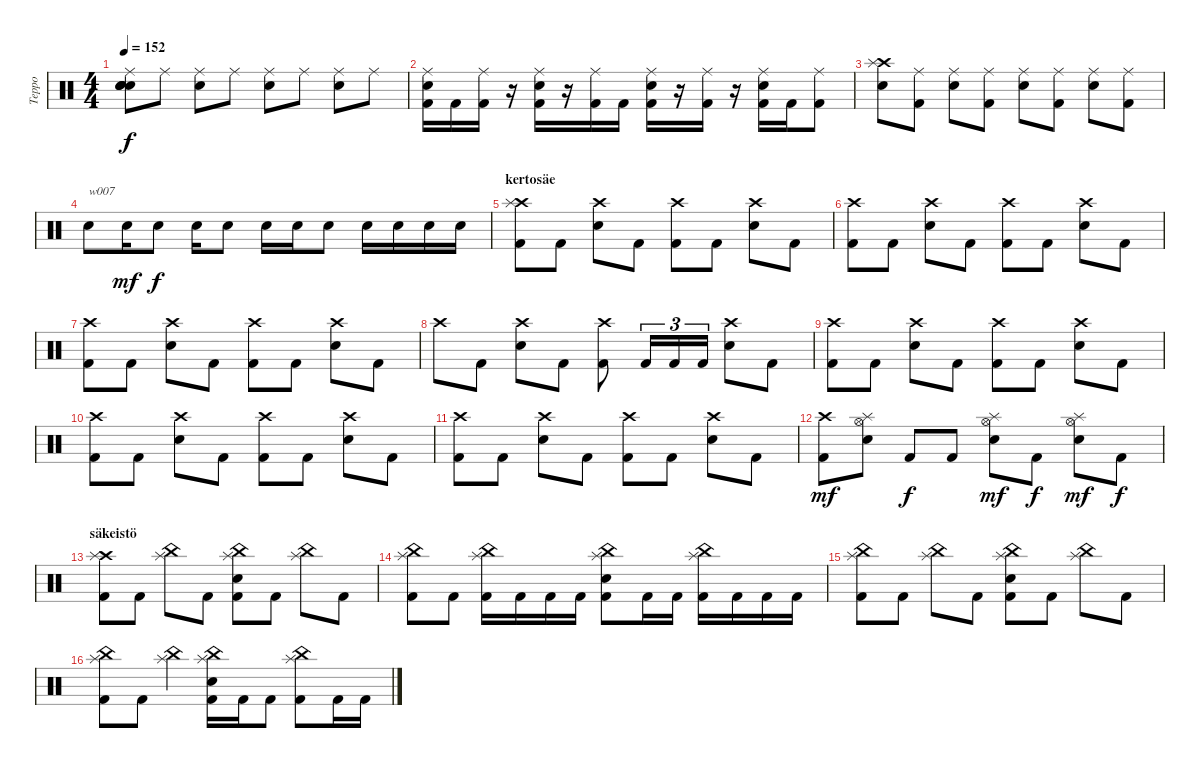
\track ("Teppo" "Teppo") {instrument percussion}
\staff {score}
\articulation defaults
\ts (4 4)
\tempo 152
\clef neutral
\ks c
("Snare (hit)"{t} "Snare (hit)"{t} "Ride (middle)" "Electric Snare (hit)" "Snare (hit)"{t}).8{dy f} "Ride (middle)".8 ("Ride (middle)" "Electric Snare (hit)").8 "Ride (middle)".8 ("Ride (middle)" "Electric Snare (hit)").8 "Ride (middle)".8 ("Ride (middle)" "Electric Snare (hit)").8 "Ride (middle)".8 |
("Ride (middle)" "Electric Snare (hit)" "Kick (hit) 2").16 "Kick (hit) 2".16 ("Ride (middle)" "Kick (hit) 2").16 r.16 ("Ride (middle)" "Electric Snare (hit)" "Kick (hit) 2").16 r.16 ("Ride (middle)" "Kick (hit) 2").16 "Kick (hit) 2".16 ("Ride (middle)" "Electric Snare (hit)" "Kick (hit) 2").16 r.16 ("Ride (middle)" "Kick (hit) 2").16 r.16 ("Ride (middle)" "Electric Snare (hit)" "Kick (hit) 2").16 "Kick (hit) 2".16 ("Ride (middle)" "Kick (hit) 2").8 |
("Crash high (hit)" "Splash (hit)" "Electric Snare (hit)").8 ("Ride (middle)" "Kick (hit) 2").8 ("Ride (middle)" "Electric Snare (hit)").8 ("Ride (middle)" "Kick (hit) 2").8 ("Ride (middle)" "Electric Snare (hit)").8 ("Ride (middle)" "Kick (hit) 2").8 ("Ride (middle)" "Electric Snare (hit)").8 ("Ride (middle)" "Kick (hit) 2").8 |
"Electric Snare (hit)".8{txt "w007"} "Electric Snare (hit)".16{dy mf} "Electric Snare (hit)".8{dy f} "Electric Snare (hit)".16 "Electric Snare (hit)".8 "Electric Snare (hit)".16 "Electric Snare (hit)".16 "Electric Snare (hit)".8 "Electric Snare (hit)".16 "Electric Snare (hit)".16 "Electric Snare (hit)".16 "Electric Snare (hit)".16 |
\section ("" "kertosäe")
("Crash high (hit)" "Splash (hit)" "Kick (hit) 2").8 "Kick (hit) 2".8 ("Crash high (hit)" "Electric Snare (hit)").8 "Kick (hit) 2".8 ("Crash high (hit)" "Kick (hit) 2").8 "Kick (hit) 2".8 ("Crash high (hit)" "Electric Snare (hit)").8 "Kick (hit) 2".8 |
("Crash high (hit)" "Kick (hit) 2").8 "Kick (hit) 2".8 ("Crash high (hit)" "Electric Snare (hit)").8 "Kick (hit) 2".8 ("Crash high (hit)" "Kick (hit) 2").8 "Kick (hit) 2".8 ("Crash high (hit)" "Electric Snare (hit)").8 "Kick (hit) 2".8 |
("Crash high (hit)" "Kick (hit) 2").8 "Kick (hit) 2".8 ("Crash high (hit)" "Electric Snare (hit)").8 "Kick (hit) 2".8 ("Crash high (hit)" "Kick (hit) 2").8 "Kick (hit) 2".8 ("Crash high (hit)" "Electric Snare (hit)").8 "Kick (hit) 2".8 |
"Crash high (hit)".8 "Kick (hit) 2".8 ("Crash high (hit)" "Electric Snare (hit)").8 "Kick (hit) 2".8 ("Crash high (hit)" "Kick (hit) 2").8 "Kick (hit) 2".16{tu (3 2)} "Kick (hit) 2".16{tu (3 2)} "Kick (hit) 2".16{tu (3 2)} ("Crash high (hit)" "Electric Snare (hit)").8 "Kick (hit) 2".8 |
("Crash high (hit)" "Kick (hit) 2").8 "Kick (hit) 2".8 ("Crash high (hit)" "Electric Snare (hit)").8 "Kick (hit) 2".8 ("Crash high (hit)" "Kick (hit) 2").8 "Kick (hit) 2".8 ("Crash high (hit)" "Electric Snare (hit)").8 "Kick (hit) 2".8 |
("Crash high (hit)" "Kick (hit) 2").8 "Kick (hit) 2".8 ("Crash high (hit)" "Electric Snare (hit)").8 "Kick (hit) 2".8 ("Crash high (hit)" "Kick (hit) 2").8 "Kick (hit) 2".8 ("Crash high (hit)" "Electric Snare (hit)").8 "Kick (hit) 2".8 |
("Crash high (hit)" "Kick (hit) 2").8 "Kick (hit) 2".8 ("Crash high (hit)" "Electric Snare (hit)").8 "Kick (hit) 2".8 ("Crash high (hit)" "Kick (hit) 2").8 "Kick (hit) 2".8 ("Crash high (hit)" "Electric Snare (hit)").8 "Kick (hit) 2".8 |
("Crash high (hit)" "Kick (hit) 2").8{dy mf} ("Hi-Hat (open)" "Splash (hit)" "Electric Snare (hit)").8 "Kick (hit) 2".8{dy f} "Kick (hit) 2".8 ("Hi-Hat (open)" "Splash (hit)" "Electric Snare (hit)").8{dy mf} "Kick (hit) 2".8{dy f} ("Hi-Hat (open)" "Splash (hit)" "Electric Snare (hit)").8{dy mf} "Kick (hit) 2".8{dy f} |
\section ("" "säkeistö")
("Crash high (hit)" "Splash (hit)" "Kick (hit) 2").8 "Kick (hit) 2".8 ("China (hit)" "Splash (hit)").8 "Kick (hit) 2".8 ("China (hit)" "Splash (hit)" "Electric Snare (hit)" "Kick (hit) 2").8 "Kick (hit) 2".8 ("China (hit)" "Splash (hit)").8 "Kick (hit) 2".8 |
("China (hit)" "Splash (hit)" "Kick (hit) 2").8 "Kick (hit) 2".8 ("China (hit)" "Splash (hit)" "Kick (hit) 2").16 "Kick (hit) 2".16 "Kick (hit) 2".16 "Kick (hit) 2".16 ("China (hit)" "Splash (hit)" "Electric Snare (hit)" "Kick (hit) 2").8 "Kick (hit) 2".16 "Kick (hit) 2".16 ("China (hit)" "Splash (hit)" "Kick (hit) 2").16 "Kick (hit) 2".16 "Kick (hit) 2".16 "Kick (hit) 2".16 |
("China (hit)" "Splash (hit)" "Kick (hit) 2").8 "Kick (hit) 2".8 ("China (hit)" "Splash (hit)").8 "Kick (hit) 2".8 ("China (hit)" "Splash (hit)" "Electric Snare (hit)" "Kick (hit) 2").8 "Kick (hit) 2".8 ("China (hit)" "Splash (hit)").8 "Kick (hit) 2".8 |
("China (hit)" "Splash (hit)" "Kick (hit) 2").8 "Kick (hit) 2".8 ("China (hit)" "Splash (hit)").4 ("China (hit)" "Splash (hit)" "Electric Snare (hit)" "Kick (hit) 2").16 "Kick (hit) 2".16 "Kick (hit) 2".8 ("China (hit)" "Splash (hit)" "Kick (hit) 2").8 "Kick (hit) 2".16 "Kick (hit) 2".16
